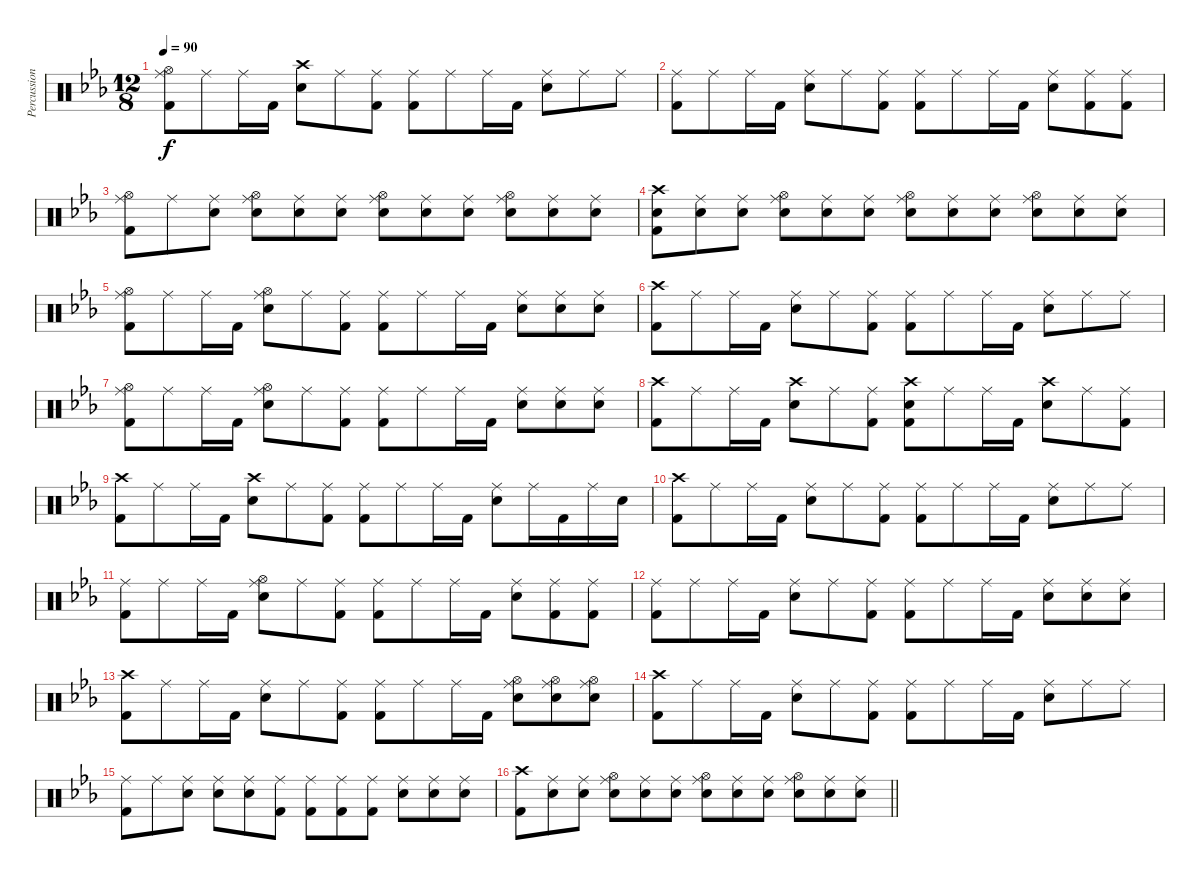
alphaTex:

\track ("Percussion" "Percussion") {instrument percussion}
\staff {score}
\articulation defaults
\ts (12 8)
\tempo 90
\clef neutral
\ks eb
("Hi-Hat (open)" "Ride (middle)" "Kick (hit) 2").8{dy f} "Ride (middle)".8 "Ride (middle)".16 "Kick (hit) 2".16 ("Crash high (hit)" "Snare (hit) 2").8 "Ride (middle)".8 ("Ride (middle)" "Kick (hit) 2").8 ("Ride (middle)" "Kick (hit) 2").8 "Ride (middle)".8 "Ride (middle)".16 "Kick (hit) 2".16 ("Ride (middle)" "Snare (hit) 2").8 "Ride (middle)".8 "Ride (middle)".8 |
("Ride (middle)" "Kick (hit) 2").8 "Ride (middle)".8 "Ride (middle)".16 "Kick (hit) 2".16 ("Ride (middle)" "Snare (hit) 2").8 "Ride (middle)".8 ("Ride (middle)" "Kick (hit) 2").8 ("Ride (middle)" "Kick (hit) 2").8 "Ride (middle)".8 "Ride (middle)".16 "Kick (hit) 2".16 ("Ride (middle)" "Snare (hit) 2").8 ("Ride (middle)" "Kick (hit) 2").8 ("Ride (middle)" "Kick (hit) 2").8 |
("Ride (middle)" "Kick (hit) 2" "Hi-Hat (open)").8 "Ride (middle)".8 ("Ride (middle)" "Snare (hit) 2").8 ("Ride (middle)" "Snare (hit) 2" "Hi-Hat (open)").8 ("Ride (middle)" "Snare (hit) 2").8 ("Ride (middle)" "Snare (hit) 2").8 ("Ride (middle)" "Snare (hit) 2" "Hi-Hat (open)").8 ("Ride (middle)" "Snare (hit) 2").8 ("Ride (middle)" "Snare (hit) 2").8 ("Ride (middle)" "Snare (hit) 2" "Hi-Hat (open)").8 ("Ride (middle)" "Snare (hit) 2").8 ("Ride (middle)" "Snare (hit) 2").8 |
("Crash high (hit)" "Kick (hit) 2" "Snare (hit) 2").8 ("Ride (middle)" "Snare (hit) 2").8 ("Ride (middle)" "Snare (hit) 2").8 ("Ride (middle)" "Snare (hit) 2" "Hi-Hat (open)").8 ("Ride (middle)" "Snare (hit) 2").8 ("Ride (middle)" "Snare (hit) 2").8 ("Ride (middle)" "Snare (hit) 2" "Hi-Hat (open)").8 ("Ride (middle)" "Snare (hit) 2").8 ("Ride (middle)" "Snare (hit) 2").8 ("Ride (middle)" "Snare (hit) 2" "Hi-Hat (open)").8 ("Ride (middle)" "Snare (hit) 2").8 ("Ride (middle)" "Snare (hit) 2").8 |
("Ride (middle)" "Hi-Hat (open)" "Kick (hit) 2").8 "Ride (middle)".8 "Ride (middle)".16 "Kick (hit) 2".16 ("Ride (middle)" "Hi-Hat (open)" "Snare (hit) 2").8 "Ride (middle)".8 ("Ride (middle)" "Kick (hit) 2").8 ("Ride (middle)" "Kick (hit) 2").8 "Ride (middle)".8 "Ride (middle)".16 "Kick (hit) 2".16 ("Ride (middle)" "Snare (hit) 2").8 ("Ride (middle)" "Snare (hit) 2").8 ("Ride (middle)" "Snare (hit) 2").8 |
("Crash high (hit)" "Kick (hit) 2").8 "Ride (middle)".8 "Ride (middle)".16 "Kick (hit) 2".16 ("Ride (middle)" "Snare (hit) 2").8 "Ride (middle)".8 ("Ride (middle)" "Kick (hit) 2").8 ("Ride (middle)" "Kick (hit) 2").8 "Ride (middle)".8 "Ride (middle)".16 "Kick (hit) 2".16 ("Ride (middle)" "Snare (hit) 2").8 "Ride (middle)".8 "Ride (middle)".8 |
("Ride (middle)" "Hi-Hat (open)" "Kick (hit) 2").8 "Ride (middle)".8 "Ride (middle)".16 "Kick (hit) 2".16 ("Ride (middle)" "Hi-Hat (open)" "Snare (hit) 2").8 "Ride (middle)".8 ("Ride (middle)" "Kick (hit) 2").8 ("Ride (middle)" "Kick (hit) 2").8 "Ride (middle)".8 "Ride (middle)".16 "Kick (hit) 2".16 ("Ride (middle)" "Snare (hit) 2").8 ("Ride (middle)" "Snare (hit) 2").8 ("Ride (middle)" "Snare (hit) 2").8 |
("Crash high (hit)" "Kick (hit) 2").8 "Ride (middle)".8 "Ride (middle)".16 "Kick (hit) 2".16 ("Crash high (hit)" "Snare (hit) 2").8 "Ride (middle)".8 ("Ride (middle)" "Kick (hit) 2").8 ("Crash high (hit)" "Snare (hit) 2" "Kick (hit) 2").8 "Ride (middle)".8 "Ride (middle)".16 "Kick (hit) 2".16 ("Crash high (hit)" "Snare (hit) 2").8 "Ride (middle)".8 ("Ride (middle)" "Kick (hit) 2").8 |
("Crash high (hit)" "Kick (hit) 2").8 "Ride (middle)".8 "Ride (middle)".16 "Kick (hit) 2".16 ("Crash high (hit)" "Snare (hit) 2").8 "Ride (middle)".8 ("Ride (middle)" "Kick (hit) 2").8 ("Ride (middle)" "Kick (hit) 2").8 "Ride (middle)".8 "Ride (middle)".16 "Kick (hit) 2".16 ("Ride (middle)" "Snare (hit) 2").8 "Ride (middle)".16 "Kick (hit) 2".16 "Ride (middle)".16 "Snare (hit) 2".16 |
("Crash high (hit)" "Kick (hit) 2").8 "Ride (middle)".8 "Ride (middle)".16 "Kick (hit) 2".16 ("Ride (middle)" "Snare (hit) 2").8 "Ride (middle)".8 ("Ride (middle)" "Kick (hit) 2").8 ("Ride (middle)" "Kick (hit) 2").8 "Ride (middle)".8 "Ride (middle)".16 "Kick (hit) 2".16 ("Ride (middle)" "Snare (hit) 2").8 "Ride (middle)".8 "Ride (middle)".8 |
("Ride (middle)" "Kick (hit) 2").8 "Ride (middle)".8 "Ride (middle)".16 "Kick (hit) 2".16 ("Ride (middle)" "Hi-Hat (open)" "Snare (hit) 2").8 "Ride (middle)".8 ("Ride (middle)" "Kick (hit) 2").8 ("Ride (middle)" "Kick (hit) 2").8 "Ride (middle)".8 "Ride (middle)".16 "Kick (hit) 2".16 ("Ride (middle)" "Snare (hit) 2").8 ("Ride (middle)" "Kick (hit) 2").8 ("Ride (middle)" "Kick (hit) 2").8 |
("Ride (middle)" "Kick (hit) 2").8 "Ride (middle)".8 "Ride (middle)".16 "Kick (hit) 2".16 ("Ride (middle)" "Snare (hit) 2").8 "Ride (middle)".8 ("Ride (middle)" "Kick (hit) 2").8 ("Ride (middle)" "Kick (hit) 2").8 "Ride (middle)".8 "Ride (middle)".16 "Kick (hit) 2".16 ("Ride (middle)" "Snare (hit) 2").8 ("Ride (middle)" "Snare (hit) 2").8 ("Ride (middle)" "Snare (hit) 2").8 |
("Crash high (hit)" "Kick (hit) 2").8 "Ride (middle)".8 "Ride (middle)".16 "Kick (hit) 2".16 ("Ride (middle)" "Snare (hit) 2").8 "Ride (middle)".8 ("Ride (middle)" "Kick (hit) 2").8 ("Ride (middle)" "Kick (hit) 2").8 "Ride (middle)".8 "Ride (middle)".16 "Kick (hit) 2".16 ("Ride (middle)" "Hi-Hat (open)" "Snare (hit) 2").8 ("Ride (middle)" "Hi-Hat (open)" "Snare (hit) 2").8 ("Ride (middle)" "Hi-Hat (open)" "Snare (hit) 2").8 |
("Crash high (hit)" "Kick (hit) 2").8 "Ride (middle)".8 "Ride (middle)".16 "Kick (hit) 2".16 ("Ride (middle)" "Snare (hit) 2").8 "Ride (middle)".8 ("Ride (middle)" "Kick (hit) 2").8 ("Ride (middle)" "Kick (hit) 2").8 "Ride (middle)".8 "Ride (middle)".16 "Kick (hit) 2".16 ("Ride (middle)" "Snare (hit) 2").8 "Ride (middle)".8 "Ride (middle)".8 |
("Ride (middle)" "Kick (hit) 2").8 "Ride (middle)".8 ("Ride (middle)" "Snare (hit) 2").8 ("Ride (middle)" "Snare (hit) 2").8 ("Ride (middle)" "Snare (hit) 2").8 ("Ride (middle)" "Kick (hit) 2").8 ("Ride (middle)" "Kick (hit) 2").8 ("Ride (middle)" "Kick (hit) 2").8 ("Ride (middle)" "Kick (hit) 2").8 ("Ride (middle)" "Snare (hit) 2").8 ("Ride (middle)" "Snare (hit) 2").8 ("Ride (middle)" "Snare (hit) 2").8 |
\barLineRight lightlight
("Crash high (hit)" "Kick (hit) 2").8 ("Ride (middle)" "Snare (hit) 2").8 ("Ride (middle)" "Snare (hit) 2").8 ("Ride (middle)" "Snare (hit) 2" "Hi-Hat (open)").8 ("Ride (middle)" "Snare (hit) 2").8 ("Ride (middle)" "Snare (hit) 2").8 ("Ride (middle)" "Snare (hit) 2" "Hi-Hat (open)").8 ("Ride (middle)" "Snare (hit) 2").8 ("Ride (middle)" "Snare (hit) 2").8 ("Ride (middle)" "Snare (hit) 2" "Hi-Hat (open)").8 ("Ride (middle)" "Snare (hit) 2").8 ("Ride (middle)" "Snare (hit) 2").8
